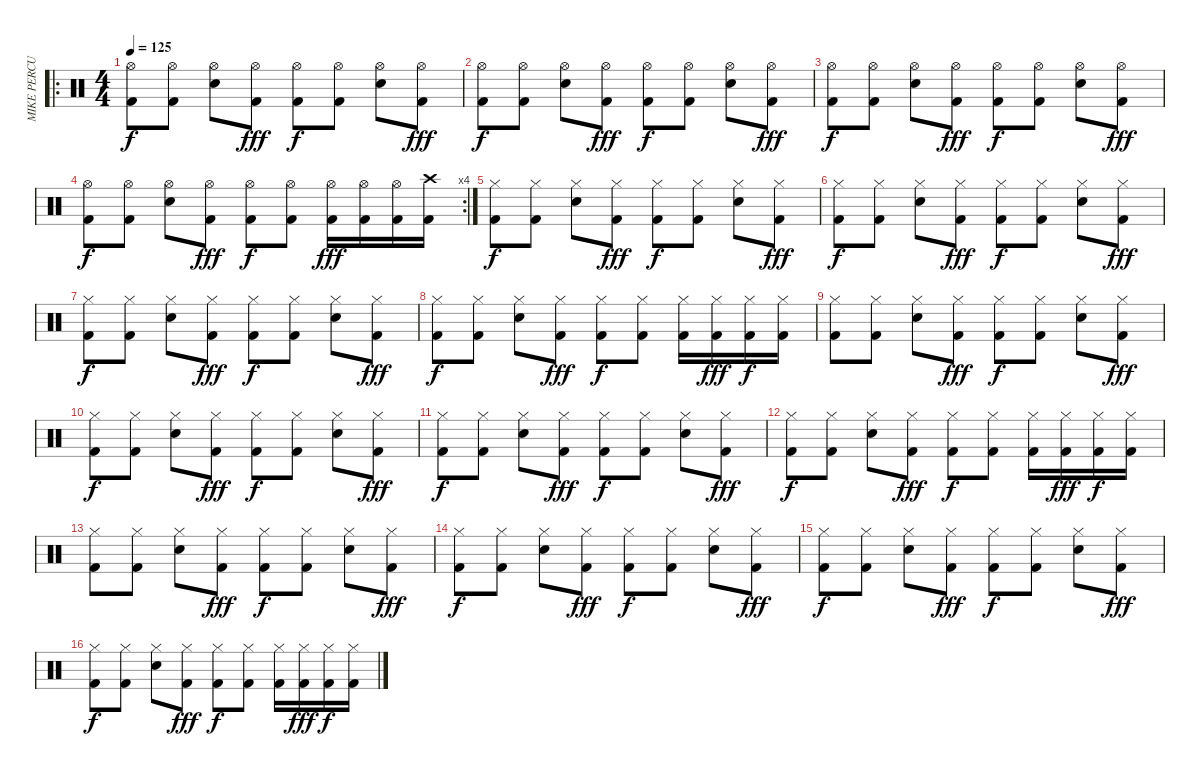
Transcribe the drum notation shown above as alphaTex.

\track ("MIKE PERCUSSIONS" "MIKE PERCU") {instrument percussion}
\staff {score}
\articulation defaults
\ro
\ts (4 4)
\tempo 125
\clef neutral
\ks c
("Hi-Hat (open)" "Kick (hit) 2").8{dy f} ("Hi-Hat (open)" "Kick (hit) 2").8 ("Hi-Hat (open)" "Electric Snare (hit)").8 ("Hi-Hat (open)" "Kick (hit) 2").8{dy fff} ("Hi-Hat (open)" "Kick (hit) 2").8{dy f} ("Hi-Hat (open)" "Kick (hit) 2").8 ("Hi-Hat (open)" "Electric Snare (hit)").8 ("Hi-Hat (open)" "Kick (hit) 2").8{dy fff} |
("Hi-Hat (open)" "Kick (hit) 2").8{dy f} ("Hi-Hat (open)" "Kick (hit) 2").8 ("Hi-Hat (open)" "Electric Snare (hit)").8 ("Hi-Hat (open)" "Kick (hit) 2").8{dy fff} ("Hi-Hat (open)" "Kick (hit) 2").8{dy f} ("Hi-Hat (open)" "Kick (hit) 2").8 ("Hi-Hat (open)" "Electric Snare (hit)").8 ("Hi-Hat (open)" "Kick (hit) 2").8{dy fff} |
("Hi-Hat (open)" "Kick (hit) 2").8{dy f} ("Hi-Hat (open)" "Kick (hit) 2").8 ("Hi-Hat (open)" "Electric Snare (hit)").8 ("Hi-Hat (open)" "Kick (hit) 2").8{dy fff} ("Hi-Hat (open)" "Kick (hit) 2").8{dy f} ("Hi-Hat (open)" "Kick (hit) 2").8 ("Hi-Hat (open)" "Electric Snare (hit)").8 ("Hi-Hat (open)" "Kick (hit) 2").8{dy fff} |
\rc 4
("Hi-Hat (open)" "Kick (hit) 2").8{dy f} ("Hi-Hat (open)" "Kick (hit) 2").8 ("Hi-Hat (open)" "Electric Snare (hit)").8 ("Hi-Hat (open)" "Kick (hit) 2").8{dy fff} ("Hi-Hat (open)" "Kick (hit) 2").8{dy f} ("Hi-Hat (open)" "Kick (hit) 2").8 ("Hi-Hat (open)" "Kick (hit) 2").16{dy fff} ("Hi-Hat (open)" "Kick (hit) 2").16 ("Hi-Hat (open)" "Kick (hit) 2").16 ("Crash high (hit)" "Kick (hit) 2").16 |
("Hi-Hat (closed)" "Kick (hit) 2").8{dy f} ("Hi-Hat (closed)" "Kick (hit) 2").8 ("Hi-Hat (closed)" "Electric Snare (hit)").8 ("Hi-Hat (closed)" "Kick (hit) 2").8{dy fff} ("Hi-Hat (closed)" "Kick (hit) 2").8{dy f} ("Hi-Hat (closed)" "Kick (hit) 2").8 ("Hi-Hat (closed)" "Electric Snare (hit)").8 ("Hi-Hat (closed)" "Kick (hit) 2").8{dy fff} |
("Hi-Hat (closed)" "Kick (hit) 2").8{dy f} ("Hi-Hat (closed)" "Kick (hit) 2").8 ("Hi-Hat (closed)" "Electric Snare (hit)").8 ("Hi-Hat (closed)" "Kick (hit) 2").8{dy fff} ("Hi-Hat (closed)" "Kick (hit) 2").8{dy f} ("Hi-Hat (closed)" "Kick (hit) 2").8 ("Hi-Hat (closed)" "Electric Snare (hit)").8 ("Hi-Hat (closed)" "Kick (hit) 2").8{dy fff} |
("Hi-Hat (closed)" "Kick (hit) 2").8{dy f} ("Hi-Hat (closed)" "Kick (hit) 2").8 ("Hi-Hat (closed)" "Electric Snare (hit)").8 ("Hi-Hat (closed)" "Kick (hit) 2").8{dy fff} ("Hi-Hat (closed)" "Kick (hit) 2").8{dy f} ("Hi-Hat (closed)" "Kick (hit) 2").8 ("Hi-Hat (closed)" "Electric Snare (hit)").8 ("Hi-Hat (closed)" "Kick (hit) 2").8{dy fff} |
("Hi-Hat (closed)" "Kick (hit) 2").8{dy f} ("Hi-Hat (closed)" "Kick (hit) 2").8 ("Hi-Hat (closed)" "Electric Snare (hit)").8 ("Hi-Hat (closed)" "Kick (hit) 2").8{dy fff} ("Hi-Hat (closed)" "Kick (hit) 2").8{dy f} ("Hi-Hat (closed)" "Kick (hit) 2").8 ("Hi-Hat (closed)" "Kick (hit) 2").16 ("Hi-Hat (closed)" "Kick (hit) 2").16{dy fff} ("Hi-Hat (closed)" "Kick (hit) 2").16{dy f} ("Hi-Hat (closed)" "Kick (hit) 2").16 |
("Hi-Hat (closed)" "Kick (hit) 2").8 ("Hi-Hat (closed)" "Kick (hit) 2").8 ("Hi-Hat (closed)" "Electric Snare (hit)").8 ("Hi-Hat (closed)" "Kick (hit) 2").8{dy fff} ("Hi-Hat (closed)" "Kick (hit) 2").8{dy f} ("Hi-Hat (closed)" "Kick (hit) 2").8 ("Hi-Hat (closed)" "Electric Snare (hit)").8 ("Hi-Hat (closed)" "Kick (hit) 2").8{dy fff} |
("Hi-Hat (closed)" "Kick (hit) 2").8{dy f} ("Hi-Hat (closed)" "Kick (hit) 2").8 ("Hi-Hat (closed)" "Electric Snare (hit)").8 ("Hi-Hat (closed)" "Kick (hit) 2").8{dy fff} ("Hi-Hat (closed)" "Kick (hit) 2").8{dy f} ("Hi-Hat (closed)" "Kick (hit) 2").8 ("Hi-Hat (closed)" "Electric Snare (hit)").8 ("Hi-Hat (closed)" "Kick (hit) 2").8{dy fff} |
("Hi-Hat (closed)" "Kick (hit) 2").8{dy f} ("Hi-Hat (closed)" "Kick (hit) 2").8 ("Hi-Hat (closed)" "Electric Snare (hit)").8 ("Hi-Hat (closed)" "Kick (hit) 2").8{dy fff} ("Hi-Hat (closed)" "Kick (hit) 2").8{dy f} ("Hi-Hat (closed)" "Kick (hit) 2").8 ("Hi-Hat (closed)" "Electric Snare (hit)").8 ("Hi-Hat (closed)" "Kick (hit) 2").8{dy fff} |
("Hi-Hat (closed)" "Kick (hit) 2").8{dy f} ("Hi-Hat (closed)" "Kick (hit) 2").8 ("Hi-Hat (closed)" "Electric Snare (hit)").8 ("Hi-Hat (closed)" "Kick (hit) 2").8{dy fff} ("Hi-Hat (closed)" "Kick (hit) 2").8{dy f} ("Hi-Hat (closed)" "Kick (hit) 2").8 ("Hi-Hat (closed)" "Kick (hit) 2").16 ("Hi-Hat (closed)" "Kick (hit) 2").16{dy fff} ("Hi-Hat (closed)" "Kick (hit) 2").16{dy f} ("Hi-Hat (closed)" "Kick (hit) 2").16 |
("Hi-Hat (closed)" "Kick (hit) 2").8 ("Hi-Hat (closed)" "Kick (hit) 2").8 ("Hi-Hat (closed)" "Electric Snare (hit)").8 ("Hi-Hat (closed)" "Kick (hit) 2").8{dy fff} ("Hi-Hat (closed)" "Kick (hit) 2").8{dy f} ("Hi-Hat (closed)" "Kick (hit) 2").8 ("Hi-Hat (closed)" "Electric Snare (hit)").8 ("Hi-Hat (closed)" "Kick (hit) 2").8{dy fff} |
("Hi-Hat (closed)" "Kick (hit) 2").8{dy f} ("Hi-Hat (closed)" "Kick (hit) 2").8 ("Hi-Hat (closed)" "Electric Snare (hit)").8 ("Hi-Hat (closed)" "Kick (hit) 2").8{dy fff} ("Hi-Hat (closed)" "Kick (hit) 2").8{dy f} ("Hi-Hat (closed)" "Kick (hit) 2").8 ("Hi-Hat (closed)" "Electric Snare (hit)").8 ("Hi-Hat (closed)" "Kick (hit) 2").8{dy fff} |
("Hi-Hat (closed)" "Kick (hit) 2").8{dy f} ("Hi-Hat (closed)" "Kick (hit) 2").8 ("Hi-Hat (closed)" "Electric Snare (hit)").8 ("Hi-Hat (closed)" "Kick (hit) 2").8{dy fff} ("Hi-Hat (closed)" "Kick (hit) 2").8{dy f} ("Hi-Hat (closed)" "Kick (hit) 2").8 ("Hi-Hat (closed)" "Electric Snare (hit)").8 ("Hi-Hat (closed)" "Kick (hit) 2").8{dy fff} |
("Hi-Hat (closed)" "Kick (hit) 2").8{dy f} ("Hi-Hat (closed)" "Kick (hit) 2").8 ("Hi-Hat (closed)" "Electric Snare (hit)").8 ("Hi-Hat (closed)" "Kick (hit) 2").8{dy fff} ("Hi-Hat (closed)" "Kick (hit) 2").8{dy f} ("Hi-Hat (closed)" "Kick (hit) 2").8 ("Hi-Hat (closed)" "Kick (hit) 2").16 ("Hi-Hat (closed)" "Kick (hit) 2").16{dy fff} ("Hi-Hat (closed)" "Kick (hit) 2").16{dy f} ("Hi-Hat (closed)" "Kick (hit) 2").16
